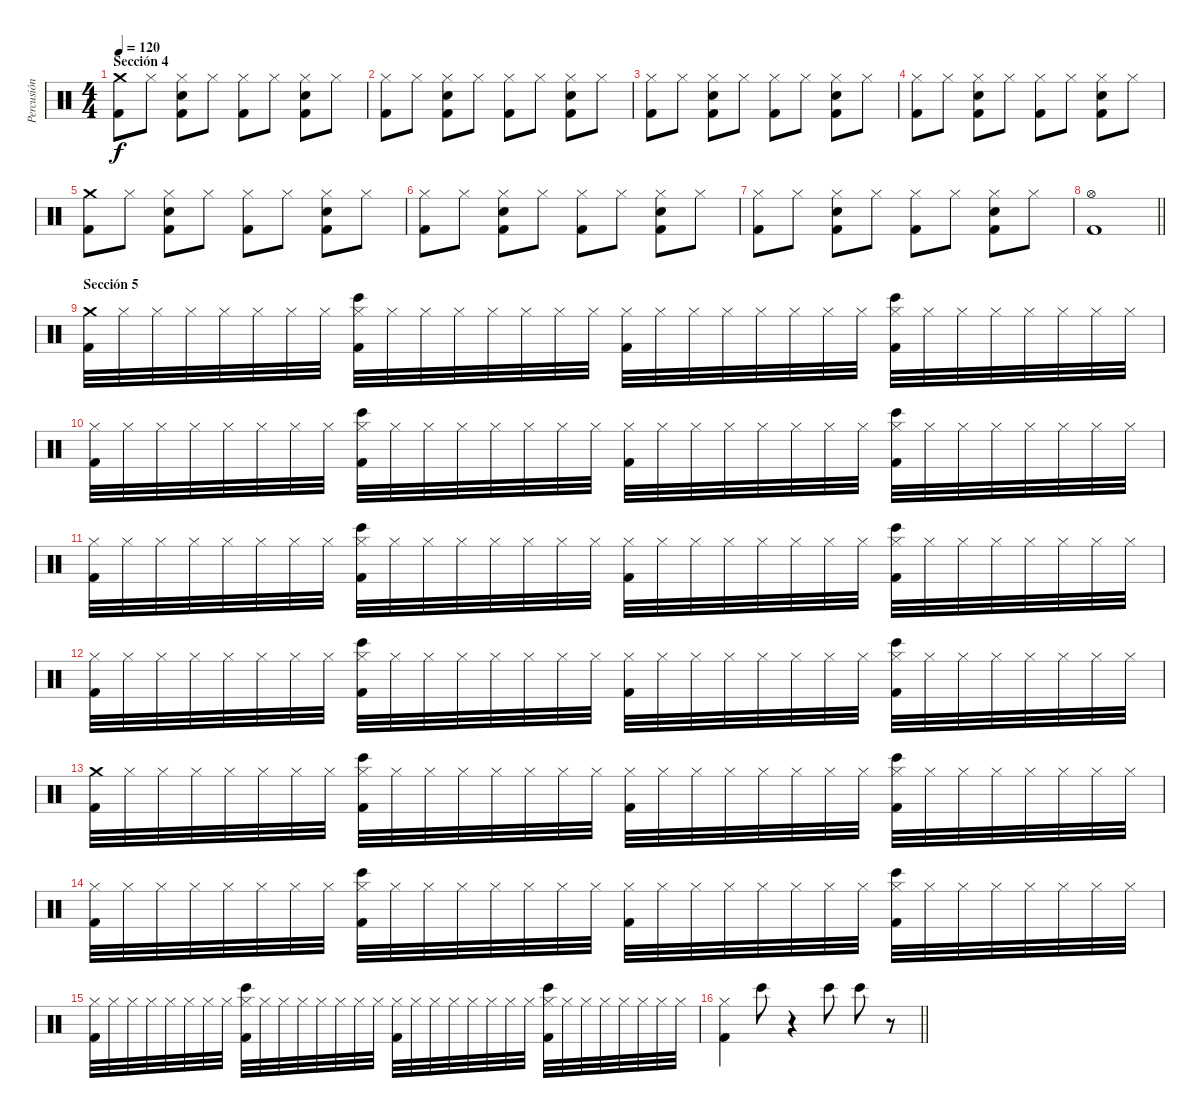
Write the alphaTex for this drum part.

\track ("Percusión" "Percusión") {instrument percussion}
\staff {score}
\articulation defaults
\ts (4 4)
\section ("" "Sección 4")
\tempo 120
\clef neutral
\ks c
("Kick (hit) 2" "Crash medium (hit)").8{dy f} "Hi-Hat (closed)".8 ("Kick (hit) 2" "Hi-Hat (closed)" "Electric Snare (hit)").8 "Hi-Hat (closed)".8 ("Kick (hit) 2" "Hi-Hat (closed)").8 "Hi-Hat (closed)".8 ("Kick (hit) 2" "Hi-Hat (closed)" "Electric Snare (hit)").8 "Hi-Hat (closed)".8 |
("Kick (hit) 2" "Hi-Hat (closed)").8 "Hi-Hat (closed)".8 ("Kick (hit) 2" "Hi-Hat (closed)" "Electric Snare (hit)").8 "Hi-Hat (closed)".8 ("Kick (hit) 2" "Hi-Hat (closed)").8 "Hi-Hat (closed)".8 ("Kick (hit) 2" "Hi-Hat (closed)" "Electric Snare (hit)").8 "Hi-Hat (closed)".8 |
("Kick (hit) 2" "Hi-Hat (closed)").8 "Hi-Hat (closed)".8 ("Kick (hit) 2" "Hi-Hat (closed)" "Electric Snare (hit)").8 "Hi-Hat (closed)".8 ("Kick (hit) 2" "Hi-Hat (closed)").8 "Hi-Hat (closed)".8 ("Kick (hit) 2" "Hi-Hat (closed)" "Electric Snare (hit)").8 "Hi-Hat (closed)".8 |
("Kick (hit) 2" "Hi-Hat (closed)").8 "Hi-Hat (closed)".8 ("Kick (hit) 2" "Hi-Hat (closed)" "Electric Snare (hit)").8 "Hi-Hat (closed)".8 ("Kick (hit) 2" "Hi-Hat (closed)").8 "Hi-Hat (closed)".8 ("Kick (hit) 2" "Hi-Hat (closed)" "Electric Snare (hit)").8 "Hi-Hat (closed)".8 |
("Kick (hit) 2" "Crash medium (hit)").8 "Hi-Hat (closed)".8 ("Kick (hit) 2" "Hi-Hat (closed)" "Electric Snare (hit)").8 "Hi-Hat (closed)".8 ("Kick (hit) 2" "Hi-Hat (closed)").8 "Hi-Hat (closed)".8 ("Kick (hit) 2" "Hi-Hat (closed)" "Electric Snare (hit)").8 "Hi-Hat (closed)".8 |
("Kick (hit) 2" "Hi-Hat (closed)").8 "Hi-Hat (closed)".8 ("Kick (hit) 2" "Hi-Hat (closed)" "Electric Snare (hit)").8 "Hi-Hat (closed)".8 ("Kick (hit) 2" "Hi-Hat (closed)").8 "Hi-Hat (closed)".8 ("Kick (hit) 2" "Hi-Hat (closed)" "Electric Snare (hit)").8 "Hi-Hat (closed)".8 |
("Kick (hit) 2" "Hi-Hat (closed)").8 "Hi-Hat (closed)".8 ("Kick (hit) 2" "Hi-Hat (closed)" "Electric Snare (hit)").8 "Hi-Hat (closed)".8 ("Kick (hit) 2" "Hi-Hat (closed)").8 "Hi-Hat (closed)".8 ("Kick (hit) 2" "Hi-Hat (closed)" "Electric Snare (hit)").8 "Hi-Hat (closed)".8 |
\barLineRight lightlight
("Kick (hit) 2" "Hi-Hat (open)").1 |
\section ("" "Sección 5")
("Kick (hit) 2" "Crash medium (hit)").32 "Hi-Hat (closed)".32 "Hi-Hat (closed)".32 "Hi-Hat (closed)".32 "Hi-Hat (closed)".32 "Hi-Hat (closed)".32 "Hi-Hat (closed)".32 "Hi-Hat (closed)".32 ("Kick (hit) 2" "Hi-Hat (closed)" "Bongo High (hit)").32 "Hi-Hat (closed)".32 "Hi-Hat (closed)".32 "Hi-Hat (closed)".32 "Hi-Hat (closed)".32 "Hi-Hat (closed)".32 "Hi-Hat (closed)".32 "Hi-Hat (closed)".32 ("Kick (hit) 2" "Hi-Hat (closed)").32 "Hi-Hat (closed)".32 "Hi-Hat (closed)".32 "Hi-Hat (closed)".32 "Hi-Hat (closed)".32 "Hi-Hat (closed)".32 "Hi-Hat (closed)".32 "Hi-Hat (closed)".32 ("Kick (hit) 2" "Hi-Hat (closed)" "Bongo High (hit)").32 "Hi-Hat (closed)".32 "Hi-Hat (closed)".32 "Hi-Hat (closed)".32 "Hi-Hat (closed)".32 "Hi-Hat (closed)".32 "Hi-Hat (closed)".32 "Hi-Hat (closed)".32 |
("Kick (hit) 2" "Hi-Hat (closed)").32 "Hi-Hat (closed)".32 "Hi-Hat (closed)".32 "Hi-Hat (closed)".32 "Hi-Hat (closed)".32 "Hi-Hat (closed)".32 "Hi-Hat (closed)".32 "Hi-Hat (closed)".32 ("Kick (hit) 2" "Hi-Hat (closed)" "Bongo High (hit)").32 "Hi-Hat (closed)".32 "Hi-Hat (closed)".32 "Hi-Hat (closed)".32 "Hi-Hat (closed)".32 "Hi-Hat (closed)".32 "Hi-Hat (closed)".32 "Hi-Hat (closed)".32 ("Kick (hit) 2" "Hi-Hat (closed)").32 "Hi-Hat (closed)".32 "Hi-Hat (closed)".32 "Hi-Hat (closed)".32 "Hi-Hat (closed)".32 "Hi-Hat (closed)".32 "Hi-Hat (closed)".32 "Hi-Hat (closed)".32 ("Kick (hit) 2" "Hi-Hat (closed)" "Bongo High (hit)").32 "Hi-Hat (closed)".32 "Hi-Hat (closed)".32 "Hi-Hat (closed)".32 "Hi-Hat (closed)".32 "Hi-Hat (closed)".32 "Hi-Hat (closed)".32 "Hi-Hat (closed)".32 |
("Kick (hit) 2" "Hi-Hat (closed)").32 "Hi-Hat (closed)".32 "Hi-Hat (closed)".32 "Hi-Hat (closed)".32 "Hi-Hat (closed)".32 "Hi-Hat (closed)".32 "Hi-Hat (closed)".32 "Hi-Hat (closed)".32 ("Kick (hit) 2" "Hi-Hat (closed)" "Bongo High (hit)").32 "Hi-Hat (closed)".32 "Hi-Hat (closed)".32 "Hi-Hat (closed)".32 "Hi-Hat (closed)".32 "Hi-Hat (closed)".32 "Hi-Hat (closed)".32 "Hi-Hat (closed)".32 ("Kick (hit) 2" "Hi-Hat (closed)").32 "Hi-Hat (closed)".32 "Hi-Hat (closed)".32 "Hi-Hat (closed)".32 "Hi-Hat (closed)".32 "Hi-Hat (closed)".32 "Hi-Hat (closed)".32 "Hi-Hat (closed)".32 ("Kick (hit) 2" "Hi-Hat (closed)" "Bongo High (hit)").32 "Hi-Hat (closed)".32 "Hi-Hat (closed)".32 "Hi-Hat (closed)".32 "Hi-Hat (closed)".32 "Hi-Hat (closed)".32 "Hi-Hat (closed)".32 "Hi-Hat (closed)".32 |
("Kick (hit) 2" "Hi-Hat (closed)").32 "Hi-Hat (closed)".32 "Hi-Hat (closed)".32 "Hi-Hat (closed)".32 "Hi-Hat (closed)".32 "Hi-Hat (closed)".32 "Hi-Hat (closed)".32 "Hi-Hat (closed)".32 ("Kick (hit) 2" "Hi-Hat (closed)" "Bongo High (hit)").32 "Hi-Hat (closed)".32 "Hi-Hat (closed)".32 "Hi-Hat (closed)".32 "Hi-Hat (closed)".32 "Hi-Hat (closed)".32 "Hi-Hat (closed)".32 "Hi-Hat (closed)".32 ("Kick (hit) 2" "Hi-Hat (closed)").32 "Hi-Hat (closed)".32 "Hi-Hat (closed)".32 "Hi-Hat (closed)".32 "Hi-Hat (closed)".32 "Hi-Hat (closed)".32 "Hi-Hat (closed)".32 "Hi-Hat (closed)".32 ("Kick (hit) 2" "Hi-Hat (closed)" "Bongo High (hit)").32 "Hi-Hat (closed)".32 "Hi-Hat (closed)".32 "Hi-Hat (closed)".32 "Hi-Hat (closed)".32 "Hi-Hat (closed)".32 "Hi-Hat (closed)".32 "Hi-Hat (closed)".32 |
("Kick (hit) 2" "Crash medium (hit)").32 "Hi-Hat (closed)".32 "Hi-Hat (closed)".32 "Hi-Hat (closed)".32 "Hi-Hat (closed)".32 "Hi-Hat (closed)".32 "Hi-Hat (closed)".32 "Hi-Hat (closed)".32 ("Kick (hit) 2" "Hi-Hat (closed)" "Bongo High (hit)").32 "Hi-Hat (closed)".32 "Hi-Hat (closed)".32 "Hi-Hat (closed)".32 "Hi-Hat (closed)".32 "Hi-Hat (closed)".32 "Hi-Hat (closed)".32 "Hi-Hat (closed)".32 ("Kick (hit) 2" "Hi-Hat (closed)").32 "Hi-Hat (closed)".32 "Hi-Hat (closed)".32 "Hi-Hat (closed)".32 "Hi-Hat (closed)".32 "Hi-Hat (closed)".32 "Hi-Hat (closed)".32 "Hi-Hat (closed)".32 ("Kick (hit) 2" "Hi-Hat (closed)" "Bongo High (hit)").32 "Hi-Hat (closed)".32 "Hi-Hat (closed)".32 "Hi-Hat (closed)".32 "Hi-Hat (closed)".32 "Hi-Hat (closed)".32 "Hi-Hat (closed)".32 "Hi-Hat (closed)".32 |
("Kick (hit) 2" "Hi-Hat (closed)").32 "Hi-Hat (closed)".32 "Hi-Hat (closed)".32 "Hi-Hat (closed)".32 "Hi-Hat (closed)".32 "Hi-Hat (closed)".32 "Hi-Hat (closed)".32 "Hi-Hat (closed)".32 ("Kick (hit) 2" "Hi-Hat (closed)" "Bongo High (hit)").32 "Hi-Hat (closed)".32 "Hi-Hat (closed)".32 "Hi-Hat (closed)".32 "Hi-Hat (closed)".32 "Hi-Hat (closed)".32 "Hi-Hat (closed)".32 "Hi-Hat (closed)".32 ("Kick (hit) 2" "Hi-Hat (closed)").32 "Hi-Hat (closed)".32 "Hi-Hat (closed)".32 "Hi-Hat (closed)".32 "Hi-Hat (closed)".32 "Hi-Hat (closed)".32 "Hi-Hat (closed)".32 "Hi-Hat (closed)".32 ("Kick (hit) 2" "Hi-Hat (closed)" "Bongo High (hit)").32 "Hi-Hat (closed)".32 "Hi-Hat (closed)".32 "Hi-Hat (closed)".32 "Hi-Hat (closed)".32 "Hi-Hat (closed)".32 "Hi-Hat (closed)".32 "Hi-Hat (closed)".32 |
("Kick (hit) 2" "Hi-Hat (closed)").32 "Hi-Hat (closed)".32 "Hi-Hat (closed)".32 "Hi-Hat (closed)".32 "Hi-Hat (closed)".32 "Hi-Hat (closed)".32 "Hi-Hat (closed)".32 "Hi-Hat (closed)".32 ("Kick (hit) 2" "Hi-Hat (closed)" "Bongo High (hit)").32 "Hi-Hat (closed)".32 "Hi-Hat (closed)".32 "Hi-Hat (closed)".32 "Hi-Hat (closed)".32 "Hi-Hat (closed)".32 "Hi-Hat (closed)".32 "Hi-Hat (closed)".32 ("Kick (hit) 2" "Hi-Hat (closed)").32 "Hi-Hat (closed)".32 "Hi-Hat (closed)".32 "Hi-Hat (closed)".32 "Hi-Hat (closed)".32 "Hi-Hat (closed)".32 "Hi-Hat (closed)".32 "Hi-Hat (closed)".32 ("Kick (hit) 2" "Hi-Hat (closed)" "Bongo High (hit)").32 "Hi-Hat (closed)".32 "Hi-Hat (closed)".32 "Hi-Hat (closed)".32 "Hi-Hat (closed)".32 "Hi-Hat (closed)".32 "Hi-Hat (closed)".32 "Hi-Hat (closed)".32 |
\barLineRight lightlight
("Kick (hit) 2" "Hi-Hat (closed)").4 "Bongo High (hit)".8 r.4 "Bongo High (hit)".8 "Bongo High (hit)".8 r.8
